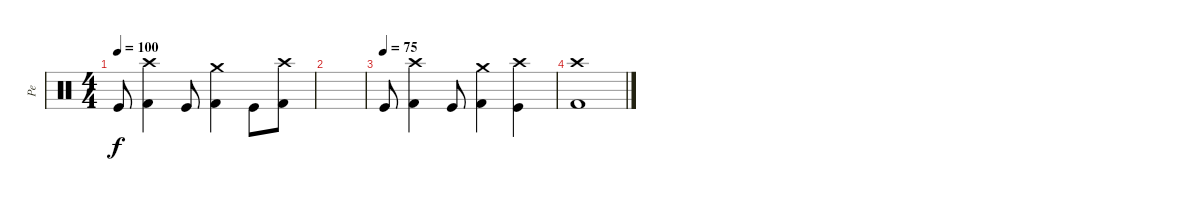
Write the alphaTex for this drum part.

\track ("Pe" "Pe") {instrument percussion}
\staff {score}
\articulation defaults
\ts (4 4)
\tempo 100
\clef neutral
\ks c "Kick (hit)".8{dy f}
("Kick (hit) 2" "Crash high (hit)").4 "Kick (hit)".8 ("Kick (hit) 2" "Crash medium (hit)").4 "Kick (hit)".8 ("Kick (hit) 2" "Crash high (hit)").8 |
|
\tempo (75)
"Kick (hit)".8 ("Kick (hit) 2" "Crash high (hit)").4 "Kick (hit)".8 ("Kick (hit) 2" "Crash medium (hit)").4 ("Kick (hit)" "Crash high (hit)").4 |
("Kick (hit) 2" "Crash high (hit)").1
